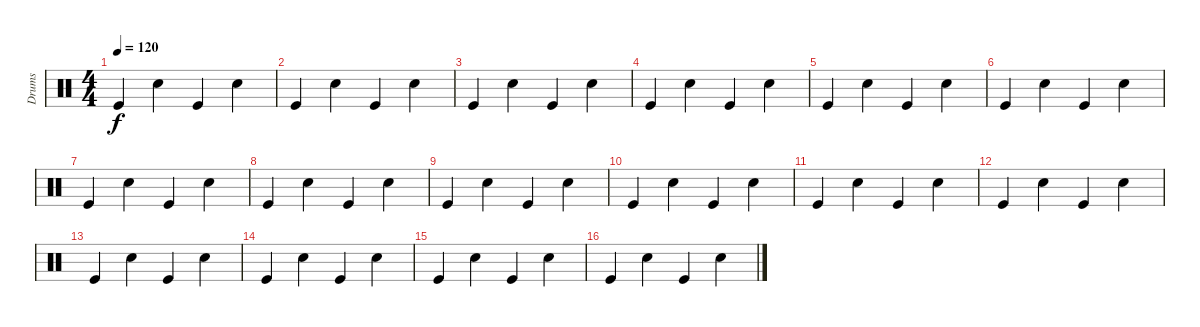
\track ("Drums" "Drums") {instrument percussion}
\staff {score}
\articulation defaults
\ts (4 4)
\tempo 120
\clef neutral
\ks c "Kick (hit)".4{dy f} "Snare (hit) 2".4 "Kick (hit)".4 "Snare (hit) 2".4
|
"Kick (hit)".4 "Snare (hit) 2".4 "Kick (hit)".4 "Snare (hit) 2".4 |
"Kick (hit)".4 "Snare (hit) 2".4 "Kick (hit)".4 "Snare (hit) 2".4 |
"Kick (hit)".4 "Snare (hit) 2".4 "Kick (hit)".4 "Snare (hit) 2".4 |
"Kick (hit)".4 "Snare (hit) 2".4 "Kick (hit)".4 "Snare (hit) 2".4 |
"Kick (hit)".4 "Snare (hit) 2".4 "Kick (hit)".4 "Snare (hit) 2".4 |
"Kick (hit)".4 "Snare (hit) 2".4 "Kick (hit)".4 "Snare (hit) 2".4 |
"Kick (hit)".4 "Snare (hit) 2".4 "Kick (hit)".4 "Snare (hit) 2".4 |
"Kick (hit)".4 "Snare (hit) 2".4 "Kick (hit)".4 "Snare (hit) 2".4 |
"Kick (hit)".4 "Snare (hit) 2".4 "Kick (hit)".4 "Snare (hit) 2".4 |
"Kick (hit)".4 "Snare (hit) 2".4 "Kick (hit)".4 "Snare (hit) 2".4 |
"Kick (hit)".4 "Snare (hit) 2".4 "Kick (hit)".4 "Snare (hit) 2".4 |
"Kick (hit)".4 "Snare (hit) 2".4 "Kick (hit)".4 "Snare (hit) 2".4 |
"Kick (hit)".4 "Snare (hit) 2".4 "Kick (hit)".4 "Snare (hit) 2".4 |
"Kick (hit)".4 "Snare (hit) 2".4 "Kick (hit)".4 "Snare (hit) 2".4 |
"Kick (hit)".4 "Snare (hit) 2".4 "Kick (hit)".4 "Snare (hit) 2".4
